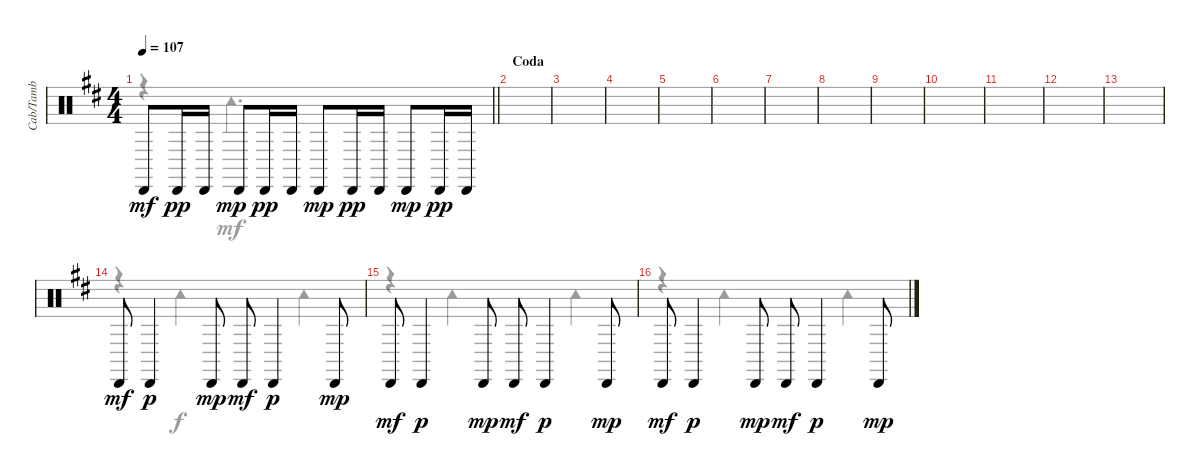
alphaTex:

\track ("Cab/Tamb" "Cab/Tamb") {instrument percussion}
\staff {score}
\articulation defaults
\voice
\ts (4 4)
\tempo 107
\clef neutral
\barLineRight lightlight
\ks d "Cabasa (hit)".8{dy mf} "Cabasa (hit)".16{dy pp} "Cabasa (hit)".16 "Cabasa (hit)".8{dy mp} "Cabasa (hit)".16{dy pp} "Cabasa (hit)".16 "Cabasa (hit)".8{dy mp} "Cabasa (hit)".16{dy pp} "Cabasa (hit)".16 "Cabasa (hit)".8{dy mp} "Cabasa (hit)".16{dy pp} "Cabasa (hit)".16
|
\section ("" "Coda")
|
|
|
|
|
|
|
|
|
|
|
|
"Cabasa (hit)".8{dy mf} "Cabasa (hit)".4{dy p} "Cabasa (hit)".8{dy mp} "Cabasa (hit)".8{dy mf} "Cabasa (hit)".4{dy p} "Cabasa (hit)".8{dy mp} |
"Cabasa (hit)".8{dy mf} "Cabasa (hit)".4{dy p} "Cabasa (hit)".8{dy mp} "Cabasa (hit)".8{dy mf} "Cabasa (hit)".4{dy p} "Cabasa (hit)".8{dy mp} |
"Cabasa (hit)".8{dy mf} "Cabasa (hit)".4{dy p} "Cabasa (hit)".8{dy mp} "Cabasa (hit)".8{dy mf} "Cabasa (hit)".4{dy p} "Cabasa (hit)".8{dy mp}
\voice
\clef neutral
\ottava regular
\simile none
\barLineRight lightlight
\ks d
r.4{dy mf} "Tambourine (hit)".2{d} |
|
|
|
|
|
|
|
|
|
|
|
|
r.4 "Tambourine (hit)".2{dy f} "Tambourine (hit)".4 |
r.4 "Tambourine (hit)".2 "Tambourine (hit)".4 |
r.4 "Tambourine (hit)".2 "Tambourine (hit)".4
